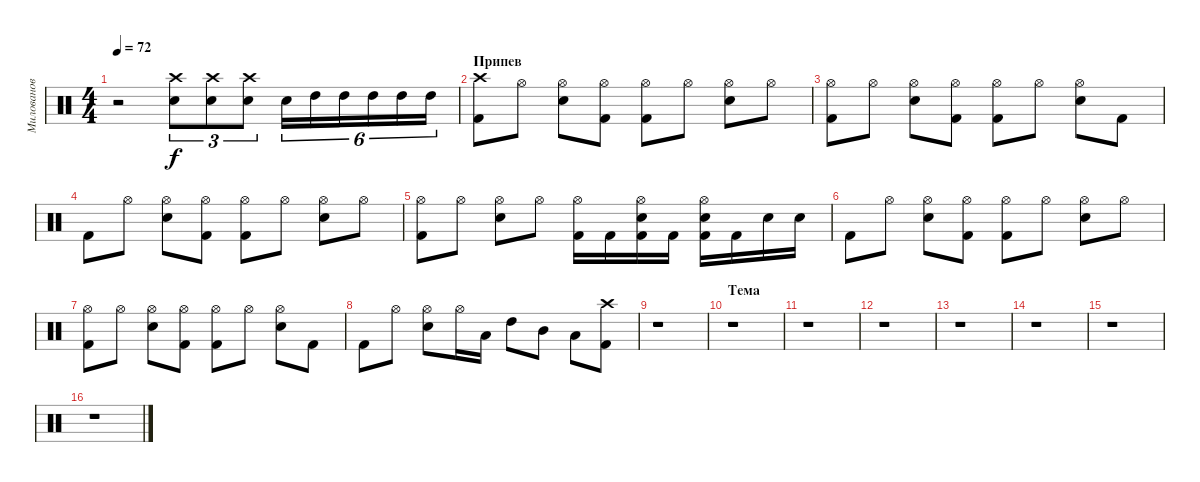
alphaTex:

\track ("Милованов" "Милованов") {instrument percussion}
\staff {score}
\articulation defaults
\ts (4 4)
\tempo 72
\clef neutral
\ks c
r.2{dy f} ("Crash high (hit)" "Electric Snare (hit)").8{tu (3 2)} ("Crash high (hit)" "Electric Snare (hit)").8{tu (3 2)} ("Crash high (hit)" "Electric Snare (hit)").8{tu (3 2)} "Electric Snare (hit)".16{tu (6 4)} "High Tom (hit)".16{tu (6 4)} "High Tom (hit)".16{tu (6 4)} "High Tom (hit)".16{tu (6 4)} "High Tom (hit)".16{tu (6 4)} "High Tom (hit)".16{tu (6 4)} |
\section ("" "Припев")
("Crash high (hit)" "Kick (hit) 2").8 "Hi-Hat (open)".8 ("Hi-Hat (open)" "Electric Snare (hit)").8 ("Hi-Hat (open)" "Kick (hit) 2").8 ("Hi-Hat (open)" "Kick (hit) 2").8 "Hi-Hat (open)".8 ("Hi-Hat (open)" "Electric Snare (hit)").8 "Hi-Hat (open)".8 |
("Hi-Hat (open)" "Kick (hit) 2").8 "Hi-Hat (open)".8 ("Hi-Hat (open)" "Electric Snare (hit)").8 ("Hi-Hat (open)" "Kick (hit) 2").8 ("Hi-Hat (open)" "Kick (hit) 2").8 "Hi-Hat (open)".8 ("Hi-Hat (open)" "Electric Snare (hit)").8 "Kick (hit) 2".8 |
"Kick (hit) 2".8 "Hi-Hat (open)".8 ("Hi-Hat (open)" "Electric Snare (hit)").8 ("Hi-Hat (open)" "Kick (hit) 2").8 ("Hi-Hat (open)" "Kick (hit) 2").8 "Hi-Hat (open)".8 ("Hi-Hat (open)" "Electric Snare (hit)").8 "Hi-Hat (open)".8 |
("Hi-Hat (open)" "Kick (hit) 2").8 "Hi-Hat (open)".8 ("Hi-Hat (open)" "Electric Snare (hit)").8 "Hi-Hat (open)".8 ("Hi-Hat (open)" "Kick (hit) 2").16 "Kick (hit) 2".16 ("Hi-Hat (open)" "Electric Snare (hit)" "Kick (hit) 2").16 "Kick (hit) 2".16 ("Hi-Hat (open)" "Electric Snare (hit)" "Kick (hit) 2").16 "Kick (hit) 2".16 "Electric Snare (hit)".16 "Electric Snare (hit)".16 |
"Kick (hit) 2".8 "Hi-Hat (open)".8 ("Hi-Hat (open)" "Electric Snare (hit)").8 ("Hi-Hat (open)" "Kick (hit) 2").8 ("Hi-Hat (open)" "Kick (hit) 2").8 "Hi-Hat (open)".8 ("Hi-Hat (open)" "Electric Snare (hit)").8 "Hi-Hat (open)".8 |
("Hi-Hat (open)" "Kick (hit) 2").8 "Hi-Hat (open)".8 ("Hi-Hat (open)" "Electric Snare (hit)").8 ("Hi-Hat (open)" "Kick (hit) 2").8 ("Hi-Hat (open)" "Kick (hit) 2").8 "Hi-Hat (open)".8 ("Hi-Hat (open)" "Electric Snare (hit)").8 "Kick (hit) 2".8 |
"Kick (hit) 2".8 "Hi-Hat (open)".8 ("Hi-Hat (open)" "Electric Snare (hit)").8 "Hi-Hat (open)".16 "Low Tom (hit)".16 "High Tom (hit)".8 "Mid Tom (hit)".8 "Low Tom (hit)".8 ("Crash high (hit)" "Kick (hit) 2").8 |
r.1 |
\section ("" "Тема")
r.1 |
r.1 |
r.1 |
r.1 |
r.1 |
r.1 |
r.1
